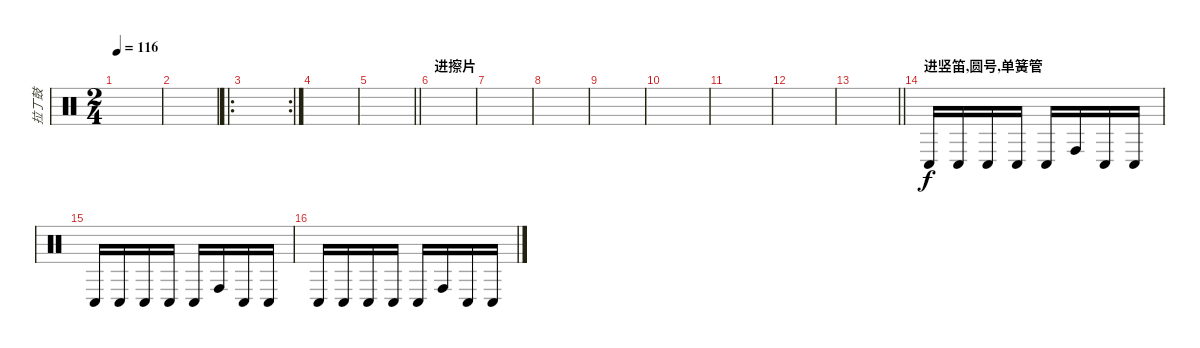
\track ("拉丁鼓" "拉丁鼓") {instrument percussion}
\staff {score}
\articulation defaults
\ts (2 4)
\tempo 116
\clef neutral
\ks c
|
|
\ro
\rc 2
|
|
\barLineRight lightlight
|
\section ("" "进擦片")
|
|
|
|
|
|
|
\barLineRight lightlight
|
\section ("" "进竖笛,圆号,单簧管")
"Conga low (hit)".16 "Conga low (hit)".16 "Conga low (hit)".16 "Conga low (hit)".16 "Conga low (hit)".16 "Conga high (hit)".16 "Conga low (hit)".16 "Conga low (hit)".16 |
"Conga low (hit)".16 "Conga low (hit)".16 "Conga low (hit)".16 "Conga low (hit)".16 "Conga low (hit)".16 "Conga high (hit)".16 "Conga low (hit)".16 "Conga low (hit)".16 |
"Conga low (hit)".16 "Conga low (hit)".16 "Conga low (hit)".16 "Conga low (hit)".16 "Conga low (hit)".16 "Conga high (hit)".16 "Conga low (hit)".16 "Conga low (hit)".16
